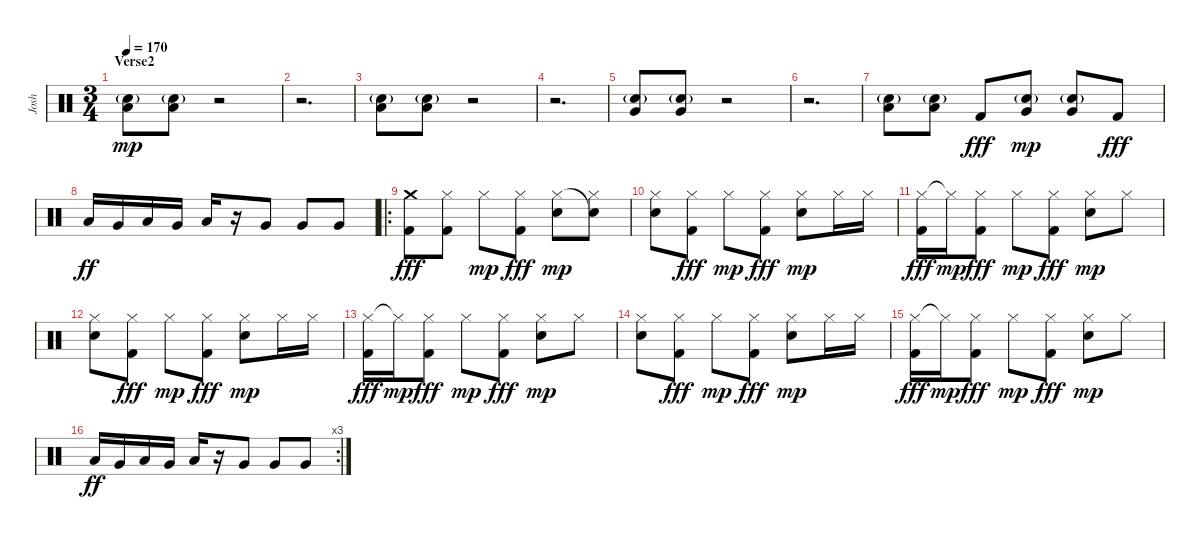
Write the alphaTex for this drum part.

\track ("Josh" "Josh") {instrument percussion}
\staff {score}
\articulation defaults
\ts (3 4)
\section ("" "Verse2")
\tempo 170
\clef neutral
\ks c
("Low Tom (hit)" "Electric Snare (hit)"{g}).8{dy mp} ("Low Tom (hit)" "Electric Snare (hit)"{g}).8 r.2 |
r.2{d} |
("Low Tom (hit)" "Electric Snare (hit)"{g}).8 ("Low Tom (hit)" "Electric Snare (hit)"{g}).8 r.2 |
r.2{d} |
("Very Low Tom (hit)" "Electric Snare (hit)"{g}).8 ("Very Low Tom (hit)" "Electric Snare (hit)"{g}).8 r.2 |
r.2{d} |
("Low Tom (hit)" "Electric Snare (hit)"{g}).8 ("Low Tom (hit)" "Electric Snare (hit)"{g}).8 "Kick (hit) 2".8{dy fff} ("Very Low Tom (hit)" "Electric Snare (hit)"{g}).8{dy mp} ("Very Low Tom (hit)" "Electric Snare (hit)"{g}).8 "Kick (hit) 2".8{dy fff} |
"Low Tom (hit)".16{dy ff} "Very Low Tom (hit)".16 "Low Tom (hit)".16 "Very Low Tom (hit)".16 "Low Tom (hit)".16 r.16 "Very Low Tom (hit)".8 "Very Low Tom (hit)".8 "Very Low Tom (hit)".8 |
\ro
("Crash medium (hit)" "Kick (hit) 2").8{dy fff} ("Hi-Hat (closed)" "Kick (hit) 2").8 "Hi-Hat (closed)".8{dy mp} ("Hi-Hat (closed)" "Kick (hit) 2").8{dy fff} ("Hi-Hat (closed)" "Electric Snare (hit)").8{dy mp} ("Snare (hit)"{t} "Hi-Hat (closed)").8 |
("Hi-Hat (closed)" "Electric Snare (hit)").8 ("Hi-Hat (closed)" "Kick (hit) 2").8{dy fff} "Hi-Hat (closed)".8{dy mp} ("Hi-Hat (closed)" "Kick (hit) 2").8{dy fff} ("Hi-Hat (closed)" "Electric Snare (hit)").8{dy mp} "Hi-Hat (closed)".16 "Hi-Hat (closed)".16 |
("Hi-Hat (closed)" "Kick (hit) 2").16{dy fff} "Hi-Hat (closed)"{t}.16{dy mp} ("Hi-Hat (closed)" "Kick (hit) 2").8{dy fff} "Hi-Hat (closed)".8{dy mp} ("Hi-Hat (closed)" "Kick (hit) 2").8{dy fff} ("Hi-Hat (closed)" "Electric Snare (hit)").8{dy mp} "Hi-Hat (closed)".8 |
("Hi-Hat (closed)" "Electric Snare (hit)").8 ("Hi-Hat (closed)" "Kick (hit) 2").8{dy fff} "Hi-Hat (closed)".8{dy mp} ("Hi-Hat (closed)" "Kick (hit) 2").8{dy fff} ("Hi-Hat (closed)" "Electric Snare (hit)").8{dy mp} "Hi-Hat (closed)".16 "Hi-Hat (closed)".16 |
("Hi-Hat (closed)" "Kick (hit) 2").16{dy fff} "Hi-Hat (closed)"{t}.16{dy mp} ("Hi-Hat (closed)" "Kick (hit) 2").8{dy fff} "Hi-Hat (closed)".8{dy mp} ("Hi-Hat (closed)" "Kick (hit) 2").8{dy fff} ("Hi-Hat (closed)" "Electric Snare (hit)").8{dy mp} "Hi-Hat (closed)".8 |
("Hi-Hat (closed)" "Electric Snare (hit)").8 ("Hi-Hat (closed)" "Kick (hit) 2").8{dy fff} "Hi-Hat (closed)".8{dy mp} ("Hi-Hat (closed)" "Kick (hit) 2").8{dy fff} ("Hi-Hat (closed)" "Electric Snare (hit)").8{dy mp} "Hi-Hat (closed)".16 "Hi-Hat (closed)".16 |
("Hi-Hat (closed)" "Kick (hit) 2").16{dy fff} "Hi-Hat (closed)"{t}.16{dy mp} ("Hi-Hat (closed)" "Kick (hit) 2").8{dy fff} "Hi-Hat (closed)".8{dy mp} ("Hi-Hat (closed)" "Kick (hit) 2").8{dy fff} ("Hi-Hat (closed)" "Electric Snare (hit)").8{dy mp} "Hi-Hat (closed)".8 |
\rc 3 "Low Tom (hit)".16{dy ff} "Very Low Tom (hit)".16 "Low Tom (hit)".16 "Very Low Tom (hit)".16 "Low Tom (hit)".16
r.16 "Very Low Tom (hit)".8 "Very Low Tom (hit)".8 "Very Low Tom (hit)".8
